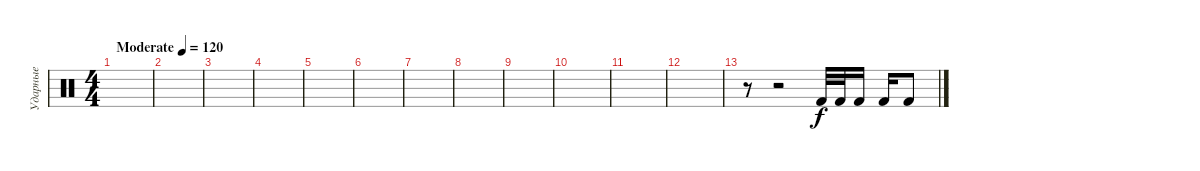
\track ("Ударные" "Ударные") {instrument percussion}
\staff {score}
\articulation defaults
\ts (4 4)
\tempo (120 "Moderate")
\clef neutral
\ks c
|
|
|
|
|
|
|
|
|
|
|
|
r.8 r.2 "Kick (hit) 2".32 "Kick (hit) 2".32 "Kick (hit) 2".16 "Kick (hit) 2".16 "Kick (hit) 2".8
